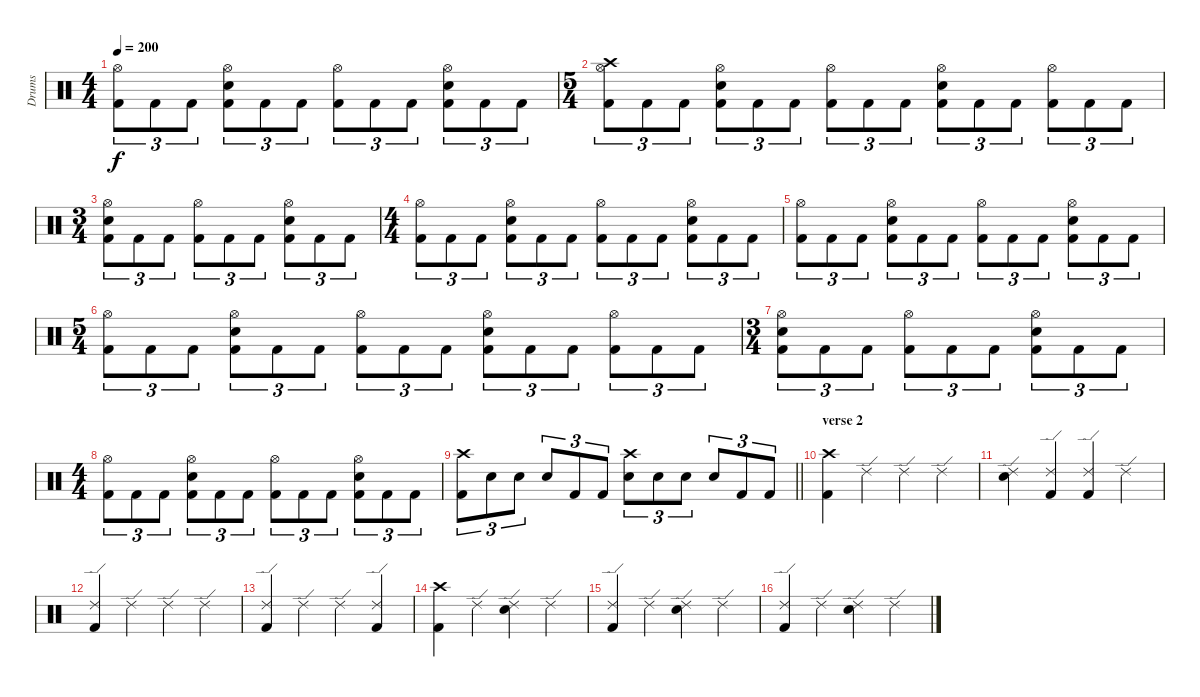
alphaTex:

\track ("Drums" "Drums") {instrument percussion}
\staff {score}
\articulation defaults
\ts (4 4)
\tempo 200
\clef neutral
\ks c
("Hi-Hat (open)" "Kick (hit) 2").8{tu (3 2) dy f} "Kick (hit) 2".8{tu (3 2)} "Kick (hit) 2".8{tu (3 2)} ("Hi-Hat (open)" "Electric Snare (hit)" "Kick (hit) 2").8{tu (3 2)} "Kick (hit) 2".8{tu (3 2)} "Kick (hit) 2".8{tu (3 2)} ("Hi-Hat (open)" "Kick (hit) 2").8{tu (3 2)} "Kick (hit) 2".8{tu (3 2)} "Kick (hit) 2".8{tu (3 2)} ("Hi-Hat (open)" "Electric Snare (hit)" "Kick (hit) 2").8{tu (3 2)} "Kick (hit) 2".8{tu (3 2)} "Kick (hit) 2".8{tu (3 2)} |
\ts (5 4)
("Crash high (hit)" "Hi-Hat (open)" "Kick (hit) 2").8{tu (3 2)} "Kick (hit) 2".8{tu (3 2)} "Kick (hit) 2".8{tu (3 2)} ("Hi-Hat (open)" "Electric Snare (hit)" "Kick (hit) 2").8{tu (3 2)} "Kick (hit) 2".8{tu (3 2)} "Kick (hit) 2".8{tu (3 2)} ("Hi-Hat (open)" "Kick (hit) 2").8{tu (3 2)} "Kick (hit) 2".8{tu (3 2)} "Kick (hit) 2".8{tu (3 2)} ("Hi-Hat (open)" "Electric Snare (hit)" "Kick (hit) 2").8{tu (3 2)} "Kick (hit) 2".8{tu (3 2)} "Kick (hit) 2".8{tu (3 2)} ("Hi-Hat (open)" "Kick (hit) 2").8{tu (3 2)} "Kick (hit) 2".8{tu (3 2)} "Kick (hit) 2".8{tu (3 2)} |
\ts (3 4)
("Hi-Hat (open)" "Electric Snare (hit)" "Kick (hit) 2").8{tu (3 2)} "Kick (hit) 2".8{tu (3 2)} "Kick (hit) 2".8{tu (3 2)} ("Hi-Hat (open)" "Kick (hit) 2").8{tu (3 2)} "Kick (hit) 2".8{tu (3 2)} "Kick (hit) 2".8{tu (3 2)} ("Hi-Hat (open)" "Electric Snare (hit)" "Kick (hit) 2").8{tu (3 2)} "Kick (hit) 2".8{tu (3 2)} "Kick (hit) 2".8{tu (3 2)} |
\ts (4 4)
("Hi-Hat (open)" "Kick (hit) 2").8{tu (3 2)} "Kick (hit) 2".8{tu (3 2)} "Kick (hit) 2".8{tu (3 2)} ("Hi-Hat (open)" "Electric Snare (hit)" "Kick (hit) 2").8{tu (3 2)} "Kick (hit) 2".8{tu (3 2)} "Kick (hit) 2".8{tu (3 2)} ("Hi-Hat (open)" "Kick (hit) 2").8{tu (3 2)} "Kick (hit) 2".8{tu (3 2)} "Kick (hit) 2".8{tu (3 2)} ("Hi-Hat (open)" "Electric Snare (hit)" "Kick (hit) 2").8{tu (3 2)} "Kick (hit) 2".8{tu (3 2)} "Kick (hit) 2".8{tu (3 2)} |
("Hi-Hat (open)" "Kick (hit) 2").8{tu (3 2)} "Kick (hit) 2".8{tu (3 2)} "Kick (hit) 2".8{tu (3 2)} ("Hi-Hat (open)" "Electric Snare (hit)" "Kick (hit) 2").8{tu (3 2)} "Kick (hit) 2".8{tu (3 2)} "Kick (hit) 2".8{tu (3 2)} ("Hi-Hat (open)" "Kick (hit) 2").8{tu (3 2)} "Kick (hit) 2".8{tu (3 2)} "Kick (hit) 2".8{tu (3 2)} ("Hi-Hat (open)" "Electric Snare (hit)" "Kick (hit) 2").8{tu (3 2)} "Kick (hit) 2".8{tu (3 2)} "Kick (hit) 2".8{tu (3 2)} |
\ts (5 4)
("Hi-Hat (open)" "Kick (hit) 2").8{tu (3 2)} "Kick (hit) 2".8{tu (3 2)} "Kick (hit) 2".8{tu (3 2)} ("Hi-Hat (open)" "Electric Snare (hit)" "Kick (hit) 2").8{tu (3 2)} "Kick (hit) 2".8{tu (3 2)} "Kick (hit) 2".8{tu (3 2)} ("Hi-Hat (open)" "Kick (hit) 2").8{tu (3 2)} "Kick (hit) 2".8{tu (3 2)} "Kick (hit) 2".8{tu (3 2)} ("Hi-Hat (open)" "Electric Snare (hit)" "Kick (hit) 2").8{tu (3 2)} "Kick (hit) 2".8{tu (3 2)} "Kick (hit) 2".8{tu (3 2)} ("Hi-Hat (open)" "Kick (hit) 2").8{tu (3 2)} "Kick (hit) 2".8{tu (3 2)} "Kick (hit) 2".8{tu (3 2)} |
\ts (3 4)
("Hi-Hat (open)" "Electric Snare (hit)" "Kick (hit) 2").8{tu (3 2)} "Kick (hit) 2".8{tu (3 2)} "Kick (hit) 2".8{tu (3 2)} ("Hi-Hat (open)" "Kick (hit) 2").8{tu (3 2)} "Kick (hit) 2".8{tu (3 2)} "Kick (hit) 2".8{tu (3 2)} ("Hi-Hat (open)" "Electric Snare (hit)" "Kick (hit) 2").8{tu (3 2)} "Kick (hit) 2".8{tu (3 2)} "Kick (hit) 2".8{tu (3 2)} |
\ts (4 4)
("Hi-Hat (open)" "Kick (hit) 2").8{tu (3 2)} "Kick (hit) 2".8{tu (3 2)} "Kick (hit) 2".8{tu (3 2)} ("Hi-Hat (open)" "Electric Snare (hit)" "Kick (hit) 2").8{tu (3 2)} "Kick (hit) 2".8{tu (3 2)} "Kick (hit) 2".8{tu (3 2)} ("Hi-Hat (open)" "Kick (hit) 2").8{tu (3 2)} "Kick (hit) 2".8{tu (3 2)} "Kick (hit) 2".8{tu (3 2)} ("Hi-Hat (open)" "Electric Snare (hit)" "Kick (hit) 2").8{tu (3 2)} "Kick (hit) 2".8{tu (3 2)} "Kick (hit) 2".8{tu (3 2)} |
\barLineRight lightlight
("Crash high (hit)" "Kick (hit) 2").8{tu (3 2)} "Electric Snare (hit)".8{tu (3 2)} "Electric Snare (hit)".8{tu (3 2)} "Electric Snare (hit)".8{tu (3 2)} "Kick (hit) 2".8{tu (3 2)} "Kick (hit) 2".8{tu (3 2)} ("Crash high (hit)" "Electric Snare (hit)").8{tu (3 2)} "Electric Snare (hit)".8{tu (3 2)} "Electric Snare (hit)".8{tu (3 2)} "Electric Snare (hit)".8{tu (3 2)} "Kick (hit) 2".8{tu (3 2)} "Kick (hit) 2".8{tu (3 2)} |
\section ("" "verse 2")
("Crash high (hit)" "Kick (hit) 2").4 "Ride (edge) 2".4 "Ride (edge) 2".4 "Ride (edge) 2".4 |
("Ride (edge) 2" "Electric Snare (hit)").4 ("Ride (edge) 2" "Kick (hit) 2").4 ("Ride (edge) 2" "Kick (hit) 2").4 "Ride (edge) 2".4 |
("Ride (edge) 2" "Kick (hit) 2").4 "Ride (edge) 2".4 "Ride (edge) 2".4 "Ride (edge) 2".4 |
("Ride (edge) 2" "Kick (hit) 2").4 "Ride (edge) 2".4 "Ride (edge) 2".4 ("Ride (edge) 2" "Kick (hit) 2").4 |
("Crash high (hit)" "Kick (hit) 2").4 "Ride (edge) 2".4 ("Ride (edge) 2" "Electric Snare (hit)").4 "Ride (edge) 2".4 |
("Ride (edge) 2" "Kick (hit) 2").4 "Ride (edge) 2".4 ("Ride (edge) 2" "Electric Snare (hit)").4 "Ride (edge) 2".4 |
("Ride (edge) 2" "Kick (hit) 2").4 "Ride (edge) 2".4 ("Ride (edge) 2" "Electric Snare (hit)").4 "Ride (edge) 2".4
